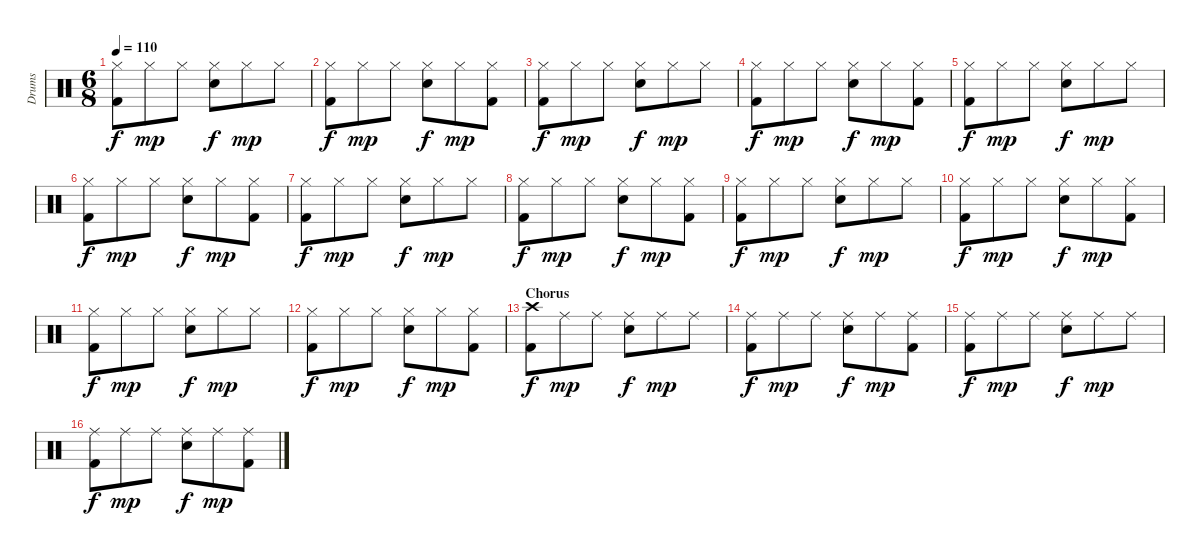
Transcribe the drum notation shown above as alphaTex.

\track ("Drums" "Drums") {instrument percussion}
\staff {score}
\articulation defaults
\ts (6 8)
\tempo 110
\clef neutral
\ks c
("Hi-Hat (closed)" "Kick (hit) 2").8{dy f} "Hi-Hat (closed)".8{dy mp} "Hi-Hat (closed)".8 ("Hi-Hat (closed)" "Electric Snare (hit)").8{dy f} "Hi-Hat (closed)".8{dy mp} "Hi-Hat (closed)".8 |
("Hi-Hat (closed)" "Kick (hit) 2").8{dy f} "Hi-Hat (closed)".8{dy mp} "Hi-Hat (closed)".8 ("Hi-Hat (closed)" "Electric Snare (hit)").8{dy f} "Hi-Hat (closed)".8{dy mp} ("Hi-Hat (closed)" "Kick (hit) 2").8 |
("Hi-Hat (closed)" "Kick (hit) 2").8{dy f} "Hi-Hat (closed)".8{dy mp} "Hi-Hat (closed)".8 ("Hi-Hat (closed)" "Electric Snare (hit)").8{dy f} "Hi-Hat (closed)".8{dy mp} "Hi-Hat (closed)".8 |
("Hi-Hat (closed)" "Kick (hit) 2").8{dy f} "Hi-Hat (closed)".8{dy mp} "Hi-Hat (closed)".8 ("Hi-Hat (closed)" "Electric Snare (hit)").8{dy f} "Hi-Hat (closed)".8{dy mp} ("Hi-Hat (closed)" "Kick (hit) 2").8 |
("Hi-Hat (closed)" "Kick (hit) 2").8{dy f} "Hi-Hat (closed)".8{dy mp} "Hi-Hat (closed)".8 ("Hi-Hat (closed)" "Electric Snare (hit)").8{dy f} "Hi-Hat (closed)".8{dy mp} "Hi-Hat (closed)".8 |
("Hi-Hat (closed)" "Kick (hit) 2").8{dy f} "Hi-Hat (closed)".8{dy mp} "Hi-Hat (closed)".8 ("Hi-Hat (closed)" "Electric Snare (hit)").8{dy f} "Hi-Hat (closed)".8{dy mp} ("Hi-Hat (closed)" "Kick (hit) 2").8 |
("Hi-Hat (closed)" "Kick (hit) 2").8{dy f} "Hi-Hat (closed)".8{dy mp} "Hi-Hat (closed)".8 ("Hi-Hat (closed)" "Electric Snare (hit)").8{dy f} "Hi-Hat (closed)".8{dy mp} "Hi-Hat (closed)".8 |
("Hi-Hat (closed)" "Kick (hit) 2").8{dy f} "Hi-Hat (closed)".8{dy mp} "Hi-Hat (closed)".8 ("Hi-Hat (closed)" "Electric Snare (hit)").8{dy f} "Hi-Hat (closed)".8{dy mp} ("Hi-Hat (closed)" "Kick (hit) 2").8 |
("Hi-Hat (closed)" "Kick (hit) 2").8{dy f} "Hi-Hat (closed)".8{dy mp} "Hi-Hat (closed)".8 ("Hi-Hat (closed)" "Electric Snare (hit)").8{dy f} "Hi-Hat (closed)".8{dy mp} "Hi-Hat (closed)".8 |
("Hi-Hat (closed)" "Kick (hit) 2").8{dy f} "Hi-Hat (closed)".8{dy mp} "Hi-Hat (closed)".8 ("Hi-Hat (closed)" "Electric Snare (hit)").8{dy f} "Hi-Hat (closed)".8{dy mp} ("Hi-Hat (closed)" "Kick (hit) 2").8 |
("Hi-Hat (closed)" "Kick (hit) 2").8{dy f} "Hi-Hat (closed)".8{dy mp} "Hi-Hat (closed)".8 ("Hi-Hat (closed)" "Electric Snare (hit)").8{dy f} "Hi-Hat (closed)".8{dy mp} "Hi-Hat (closed)".8 |
("Hi-Hat (closed)" "Kick (hit) 2").8{dy f} "Hi-Hat (closed)".8{dy mp} "Hi-Hat (closed)".8 ("Hi-Hat (closed)" "Electric Snare (hit)").8{dy f} "Hi-Hat (closed)".8{dy mp} ("Hi-Hat (closed)" "Kick (hit) 2").8 |
\section ("" "Chorus")
("Crash high (hit)" "Kick (hit) 2").8{dy f} "Ride (middle)".8{dy mp} "Ride (middle)".8 ("Ride (middle)" "Electric Snare (hit)").8{dy f} "Ride (middle)".8{dy mp} "Ride (middle)".8 |
("Ride (middle)" "Kick (hit) 2").8{dy f} "Ride (middle)".8{dy mp} "Ride (middle)".8 ("Ride (middle)" "Electric Snare (hit)").8{dy f} "Ride (middle)".8{dy mp} ("Ride (middle)" "Kick (hit) 2").8 |
("Ride (middle)" "Kick (hit) 2").8{dy f} "Ride (middle)".8{dy mp} "Ride (middle)".8 ("Ride (middle)" "Electric Snare (hit)").8{dy f} "Ride (middle)".8{dy mp} "Ride (middle)".8 |
("Ride (middle)" "Kick (hit) 2").8{dy f} "Ride (middle)".8{dy mp} "Ride (middle)".8 ("Ride (middle)" "Electric Snare (hit)").8{dy f} "Ride (middle)".8{dy mp} ("Ride (middle)" "Kick (hit) 2").8
